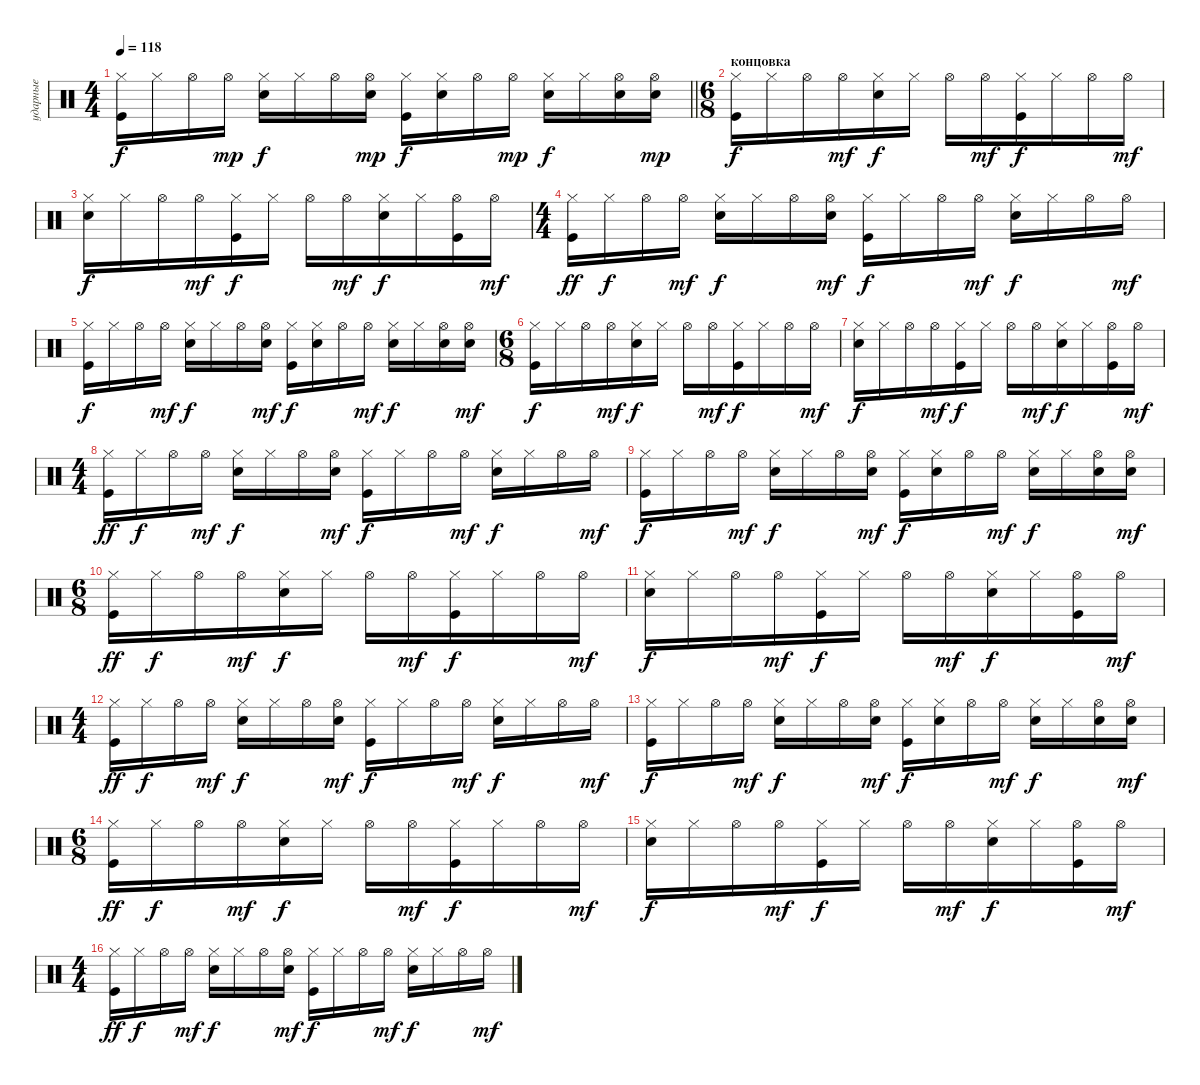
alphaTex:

\track ("ударные" "ударные") {instrument percussion}
\staff {score}
\articulation defaults
\ts (4 4)
\tempo 118
\clef neutral
\barLineRight lightlight
\ks c
("Hi-Hat (closed)" "Kick (hit)").16{dy f} "Hi-Hat (closed)".16 "Hi-Hat (open)".16 "Hi-Hat (open)".16{dy mp} ("Hi-Hat (closed)" "Electric Snare (hit)").16{dy f} "Hi-Hat (closed)".16 "Hi-Hat (open)".16 ("Electric Snare (hit)" "Hi-Hat (open)").16{dy mp} ("Kick (hit)" "Hi-Hat (closed)").16{dy f} ("Electric Snare (hit)" "Hi-Hat (closed)").16 "Hi-Hat (open)".16 "Hi-Hat (open)".16{dy mp} ("Hi-Hat (closed)" "Electric Snare (hit)").16{dy f} "Hi-Hat (closed)".16 ("Electric Snare (hit)" "Hi-Hat (open)").16 ("Electric Snare (hit)" "Hi-Hat (open)").16{dy mp} |
\ts (6 8)
\section ("" "концовка")
("Hi-Hat (closed)" "Kick (hit)").16{dy f} "Hi-Hat (closed)".16 "Hi-Hat (open)".16 "Hi-Hat (open)".16{dy mf} ("Electric Snare (hit)" "Hi-Hat (closed)").16{dy f} "Hi-Hat (closed)".16 "Hi-Hat (open)".16 "Hi-Hat (open)".16{dy mf} ("Kick (hit)" "Hi-Hat (closed)").16{dy f} "Hi-Hat (closed)".16 "Hi-Hat (open)".16 "Hi-Hat (open)".16{dy mf} |
("Electric Snare (hit)" "Hi-Hat (closed)").16{dy f} "Hi-Hat (closed)".16 "Hi-Hat (open)".16 "Hi-Hat (open)".16{dy mf} ("Kick (hit)" "Hi-Hat (closed)").16{dy f} "Hi-Hat (closed)".16 "Hi-Hat (open)".16 "Hi-Hat (open)".16{dy mf} ("Electric Snare (hit)" "Hi-Hat (closed)").16{dy f} "Hi-Hat (closed)".16 ("Kick (hit)" "Hi-Hat (open)").16 "Hi-Hat (open)".16{dy mf} |
\ts (4 4)
("Kick (hit)" "Hi-Hat (closed)").16{dy ff} "Hi-Hat (closed)".16{dy f} "Hi-Hat (open)".16 "Hi-Hat (open)".16{dy mf} ("Electric Snare (hit)" "Hi-Hat (closed)").16{dy f} "Hi-Hat (closed)".16 "Hi-Hat (open)".16 ("Hi-Hat (open)" "Electric Snare (hit)").16{dy mf} ("Hi-Hat (closed)" "Kick (hit)").16{dy f} "Hi-Hat (closed)".16 "Hi-Hat (open)".16 "Hi-Hat (open)".16{dy mf} ("Electric Snare (hit)" "Hi-Hat (closed)").16{dy f} "Hi-Hat (closed)".16 "Hi-Hat (open)".16 "Hi-Hat (open)".16{dy mf} |
("Kick (hit)" "Hi-Hat (closed)").16{dy f} "Hi-Hat (closed)".16 "Hi-Hat (open)".16 "Hi-Hat (open)".16{dy mf} ("Electric Snare (hit)" "Hi-Hat (closed)").16{dy f} "Hi-Hat (closed)".16 "Hi-Hat (open)".16 ("Hi-Hat (open)" "Electric Snare (hit)").16{dy mf} ("Hi-Hat (closed)" "Kick (hit)").16{dy f} ("Electric Snare (hit)" "Hi-Hat (closed)").16 "Hi-Hat (open)".16 "Hi-Hat (open)".16{dy mf} ("Electric Snare (hit)" "Hi-Hat (closed)").16{dy f} "Hi-Hat (closed)".16 ("Electric Snare (hit)" "Hi-Hat (open)").16 ("Electric Snare (hit)" "Hi-Hat (open)").16{dy mf} |
\ts (6 8)
("Hi-Hat (closed)" "Kick (hit)").16{dy f} "Hi-Hat (closed)".16 "Hi-Hat (open)".16 "Hi-Hat (open)".16{dy mf} ("Electric Snare (hit)" "Hi-Hat (closed)").16{dy f} "Hi-Hat (closed)".16 "Hi-Hat (open)".16 "Hi-Hat (open)".16{dy mf} ("Kick (hit)" "Hi-Hat (closed)").16{dy f} "Hi-Hat (closed)".16 "Hi-Hat (open)".16 "Hi-Hat (open)".16{dy mf} |
("Electric Snare (hit)" "Hi-Hat (closed)").16{dy f} "Hi-Hat (closed)".16 "Hi-Hat (open)".16 "Hi-Hat (open)".16{dy mf} ("Kick (hit)" "Hi-Hat (closed)").16{dy f} "Hi-Hat (closed)".16 "Hi-Hat (open)".16 "Hi-Hat (open)".16{dy mf} ("Electric Snare (hit)" "Hi-Hat (closed)").16{dy f} "Hi-Hat (closed)".16 ("Kick (hit)" "Hi-Hat (open)").16 "Hi-Hat (open)".16{dy mf} |
\ts (4 4)
("Kick (hit)" "Hi-Hat (closed)").16{dy ff} "Hi-Hat (closed)".16{dy f} "Hi-Hat (open)".16 "Hi-Hat (open)".16{dy mf} ("Electric Snare (hit)" "Hi-Hat (closed)").16{dy f} "Hi-Hat (closed)".16 "Hi-Hat (open)".16 ("Hi-Hat (open)" "Electric Snare (hit)").16{dy mf} ("Hi-Hat (closed)" "Kick (hit)").16{dy f} "Hi-Hat (closed)".16 "Hi-Hat (open)".16 "Hi-Hat (open)".16{dy mf} ("Electric Snare (hit)" "Hi-Hat (closed)").16{dy f} "Hi-Hat (closed)".16 "Hi-Hat (open)".16 "Hi-Hat (open)".16{dy mf} |
("Kick (hit)" "Hi-Hat (closed)").16{dy f} "Hi-Hat (closed)".16 "Hi-Hat (open)".16 "Hi-Hat (open)".16{dy mf} ("Electric Snare (hit)" "Hi-Hat (closed)").16{dy f} "Hi-Hat (closed)".16 "Hi-Hat (open)".16 ("Hi-Hat (open)" "Electric Snare (hit)").16{dy mf} ("Hi-Hat (closed)" "Kick (hit)").16{dy f} ("Electric Snare (hit)" "Hi-Hat (closed)").16 "Hi-Hat (open)".16 "Hi-Hat (open)".16{dy mf} ("Electric Snare (hit)" "Hi-Hat (closed)").16{dy f} "Hi-Hat (closed)".16 ("Electric Snare (hit)" "Hi-Hat (open)").16 ("Electric Snare (hit)" "Hi-Hat (open)").16{dy mf} |
\ts (6 8)
("Hi-Hat (closed)" "Kick (hit)").16{dy ff} "Hi-Hat (closed)".16{dy f} "Hi-Hat (open)".16 "Hi-Hat (open)".16{dy mf} ("Electric Snare (hit)" "Hi-Hat (closed)").16{dy f} "Hi-Hat (closed)".16 "Hi-Hat (open)".16 "Hi-Hat (open)".16{dy mf} ("Kick (hit)" "Hi-Hat (closed)").16{dy f} "Hi-Hat (closed)".16 "Hi-Hat (open)".16 "Hi-Hat (open)".16{dy mf} |
("Electric Snare (hit)" "Hi-Hat (closed)").16{dy f} "Hi-Hat (closed)".16 "Hi-Hat (open)".16 "Hi-Hat (open)".16{dy mf} ("Kick (hit)" "Hi-Hat (closed)").16{dy f} "Hi-Hat (closed)".16 "Hi-Hat (open)".16 "Hi-Hat (open)".16{dy mf} ("Electric Snare (hit)" "Hi-Hat (closed)").16{dy f} "Hi-Hat (closed)".16 ("Kick (hit)" "Hi-Hat (open)").16 "Hi-Hat (open)".16{dy mf} |
\ts (4 4)
("Kick (hit)" "Hi-Hat (closed)").16{dy ff} "Hi-Hat (closed)".16{dy f} "Hi-Hat (open)".16 "Hi-Hat (open)".16{dy mf} ("Electric Snare (hit)" "Hi-Hat (closed)").16{dy f} "Hi-Hat (closed)".16 "Hi-Hat (open)".16 ("Hi-Hat (open)" "Electric Snare (hit)").16{dy mf} ("Hi-Hat (closed)" "Kick (hit)").16{dy f} "Hi-Hat (closed)".16 "Hi-Hat (open)".16 "Hi-Hat (open)".16{dy mf} ("Electric Snare (hit)" "Hi-Hat (closed)").16{dy f} "Hi-Hat (closed)".16 "Hi-Hat (open)".16 "Hi-Hat (open)".16{dy mf} |
("Kick (hit)" "Hi-Hat (closed)").16{dy f} "Hi-Hat (closed)".16 "Hi-Hat (open)".16 "Hi-Hat (open)".16{dy mf} ("Electric Snare (hit)" "Hi-Hat (closed)").16{dy f} "Hi-Hat (closed)".16 "Hi-Hat (open)".16 ("Hi-Hat (open)" "Electric Snare (hit)").16{dy mf} ("Hi-Hat (closed)" "Kick (hit)").16{dy f} ("Electric Snare (hit)" "Hi-Hat (closed)").16 "Hi-Hat (open)".16 "Hi-Hat (open)".16{dy mf} ("Electric Snare (hit)" "Hi-Hat (closed)").16{dy f} "Hi-Hat (closed)".16 ("Electric Snare (hit)" "Hi-Hat (open)").16 ("Electric Snare (hit)" "Hi-Hat (open)").16{dy mf} |
\ts (6 8)
("Hi-Hat (closed)" "Kick (hit)").16{dy ff} "Hi-Hat (closed)".16{dy f} "Hi-Hat (open)".16 "Hi-Hat (open)".16{dy mf} ("Electric Snare (hit)" "Hi-Hat (closed)").16{dy f} "Hi-Hat (closed)".16 "Hi-Hat (open)".16 "Hi-Hat (open)".16{dy mf} ("Kick (hit)" "Hi-Hat (closed)").16{dy f} "Hi-Hat (closed)".16 "Hi-Hat (open)".16 "Hi-Hat (open)".16{dy mf} |
("Electric Snare (hit)" "Hi-Hat (closed)").16{dy f} "Hi-Hat (closed)".16 "Hi-Hat (open)".16 "Hi-Hat (open)".16{dy mf} ("Kick (hit)" "Hi-Hat (closed)").16{dy f} "Hi-Hat (closed)".16 "Hi-Hat (open)".16 "Hi-Hat (open)".16{dy mf} ("Electric Snare (hit)" "Hi-Hat (closed)").16{dy f} "Hi-Hat (closed)".16 ("Kick (hit)" "Hi-Hat (open)").16 "Hi-Hat (open)".16{dy mf} |
\ts (4 4)
("Kick (hit)" "Hi-Hat (closed)").16{dy ff} "Hi-Hat (closed)".16{dy f} "Hi-Hat (open)".16 "Hi-Hat (open)".16{dy mf} ("Electric Snare (hit)" "Hi-Hat (closed)").16{dy f} "Hi-Hat (closed)".16 "Hi-Hat (open)".16 ("Hi-Hat (open)" "Electric Snare (hit)").16{dy mf} ("Hi-Hat (closed)" "Kick (hit)").16{dy f} "Hi-Hat (closed)".16 "Hi-Hat (open)".16 "Hi-Hat (open)".16{dy mf} ("Electric Snare (hit)" "Hi-Hat (closed)").16{dy f} "Hi-Hat (closed)".16 "Hi-Hat (open)".16 "Hi-Hat (open)".16{dy mf}
